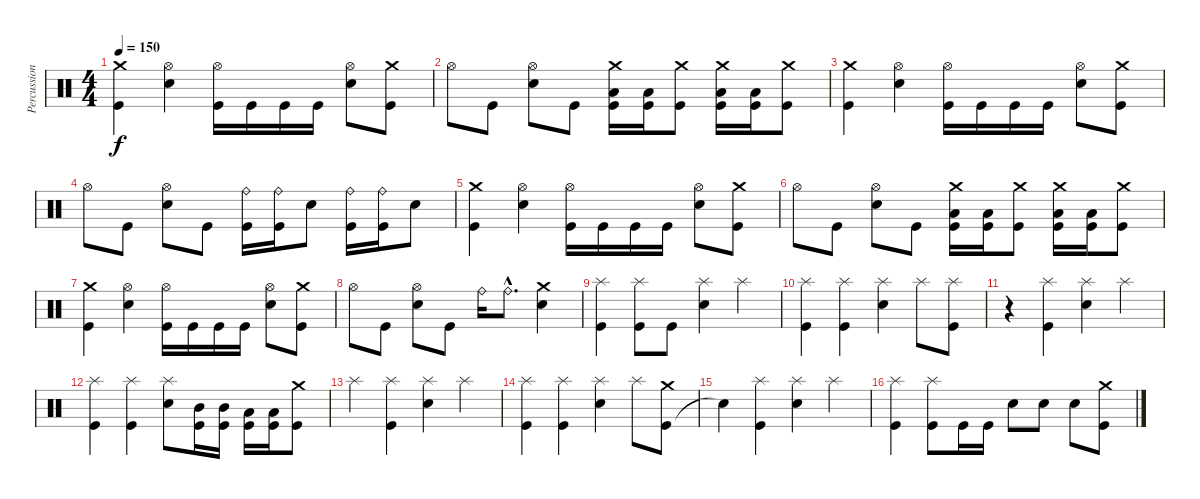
\track ("Percussions" "Percussion") {instrument percussion}
\staff {score}
\articulation defaults
\ts (4 4)
\tempo 150
\clef neutral
\ks c
("Kick (hit)" "Crash medium (hit)").4{dy f} ("Electric Snare (hit)" "Hi-Hat (open)").4 ("Kick (hit)" "Hi-Hat (open)").16 "Kick (hit)".16 "Kick (hit)".16 "Kick (hit)".16 ("Electric Snare (hit)" "Hi-Hat (open)").8 ("Kick (hit)" "Crash medium (hit)").8 |
"Hi-Hat (open)".8 "Kick (hit)".8 ("Electric Snare (hit)" "Hi-Hat (open)").8 "Kick (hit)".8 ("Kick (hit)" "Low Floor Tom (hit)" "Crash medium (hit)").16 ("Kick (hit)" "Low Floor Tom (hit)").16 ("Kick (hit)" "Crash medium (hit)").8 ("Kick (hit)" "Low Floor Tom (hit)" "Crash medium (hit)").16 ("Kick (hit)" "Low Floor Tom (hit)").16 ("Kick (hit)" "Crash medium (hit)").8 |
("Kick (hit)" "Crash medium (hit)").4 ("Electric Snare (hit)" "Hi-Hat (open)").4 ("Kick (hit)" "Hi-Hat (open)").16 "Kick (hit)".16 "Kick (hit)".16 "Kick (hit)".16 ("Electric Snare (hit)" "Hi-Hat (open)").8 ("Kick (hit)" "Crash medium (hit)").8 |
"Hi-Hat (open)".8 "Kick (hit)".8 ("Electric Snare (hit)" "Hi-Hat (open)").8 "Kick (hit)".8 ("Kick (hit)" "Ride (bell)").16 ("Kick (hit)" "Ride (bell)").16 "Electric Snare (hit)".8 ("Kick (hit)" "Ride (bell)").16 ("Kick (hit)" "Ride (bell)").16 "Electric Snare (hit)".8 |
("Kick (hit)" "Crash medium (hit)").4 ("Electric Snare (hit)" "Hi-Hat (open)").4 ("Kick (hit)" "Hi-Hat (open)").16 "Kick (hit)".16 "Kick (hit)".16 "Kick (hit)".16 ("Electric Snare (hit)" "Hi-Hat (open)").8 ("Kick (hit)" "Crash medium (hit)").8 |
"Hi-Hat (open)".8 "Kick (hit)".8 ("Electric Snare (hit)" "Hi-Hat (open)").8 "Kick (hit)".8 ("Kick (hit)" "Low Floor Tom (hit)" "Crash medium (hit)").16 ("Kick (hit)" "Low Floor Tom (hit)").16 ("Kick (hit)" "Crash medium (hit)").8 ("Kick (hit)" "Low Floor Tom (hit)" "Crash medium (hit)").16 ("Kick (hit)" "Low Floor Tom (hit)").16 ("Kick (hit)" "Crash medium (hit)").8 |
("Kick (hit)" "Crash medium (hit)").4 ("Electric Snare (hit)" "Hi-Hat (open)").4 ("Kick (hit)" "Hi-Hat (open)").16 "Kick (hit)".16 "Kick (hit)".16 "Kick (hit)".16 ("Electric Snare (hit)" "Hi-Hat (open)").8 ("Kick (hit)" "Crash medium (hit)").8 |
"Hi-Hat (open)".8 "Kick (hit)".8 ("Electric Snare (hit)" "Hi-Hat (open)").8 "Kick (hit)".8 "Ride (bell)".16 "Ride (bell)"{hac}.8{d} ("Electric Snare (hit)" "Crash medium (hit)").4 |
("Kick (hit)" "Splash (hit)").4 ("Kick (hit)" "Splash (hit)").8 "Kick (hit)".8 ("Electric Snare (hit)" "Splash (hit)").4 "Splash (hit)".4 |
("Kick (hit)" "Splash (hit)").4 ("Kick (hit)" "Splash (hit)").4 ("Electric Snare (hit)" "Splash (hit)").4 "Splash (hit)".8 ("Kick (hit)" "Splash (hit)").8 |
r.4 ("Kick (hit)" "Splash (hit)").4 ("Electric Snare (hit)" "Splash (hit)").4 "Splash (hit)".4 |
("Kick (hit)" "Splash (hit)").4 ("Kick (hit)" "Splash (hit)").4 ("Electric Snare (hit)" "Splash (hit)").8 ("Kick (hit)" "Mid Tom (hit)").16 ("Kick (hit)" "Mid Tom (hit)").16 ("Kick (hit)" "Low Tom (hit)").16 ("Kick (hit)" "Low Tom (hit)").16 ("Kick (hit)" "Crash medium (hit)").8 |
"Splash (hit)".4 ("Kick (hit)" "Splash (hit)").4 ("Electric Snare (hit)" "Splash (hit)").4 "Splash (hit)".4 |
("Kick (hit)" "Splash (hit)").4 ("Kick (hit)" "Splash (hit)").4 ("Electric Snare (hit)" "Splash (hit)").4 "Splash (hit)".8 ("Kick (hit)" "Crash medium (hit)").8 |
"Snare (hit)"{t}.4 ("Kick (hit)" "Splash (hit)").4 ("Electric Snare (hit)" "Splash (hit)").4 "Splash (hit)".4 |
("Kick (hit)" "Splash (hit)").4 ("Kick (hit)" "Splash (hit)").8 "Kick (hit)".16 "Kick (hit)".16 "Electric Snare (hit)".8 "Electric Snare (hit)".8 "Electric Snare (hit)".8 ("Kick (hit)" "Crash medium (hit)").8
